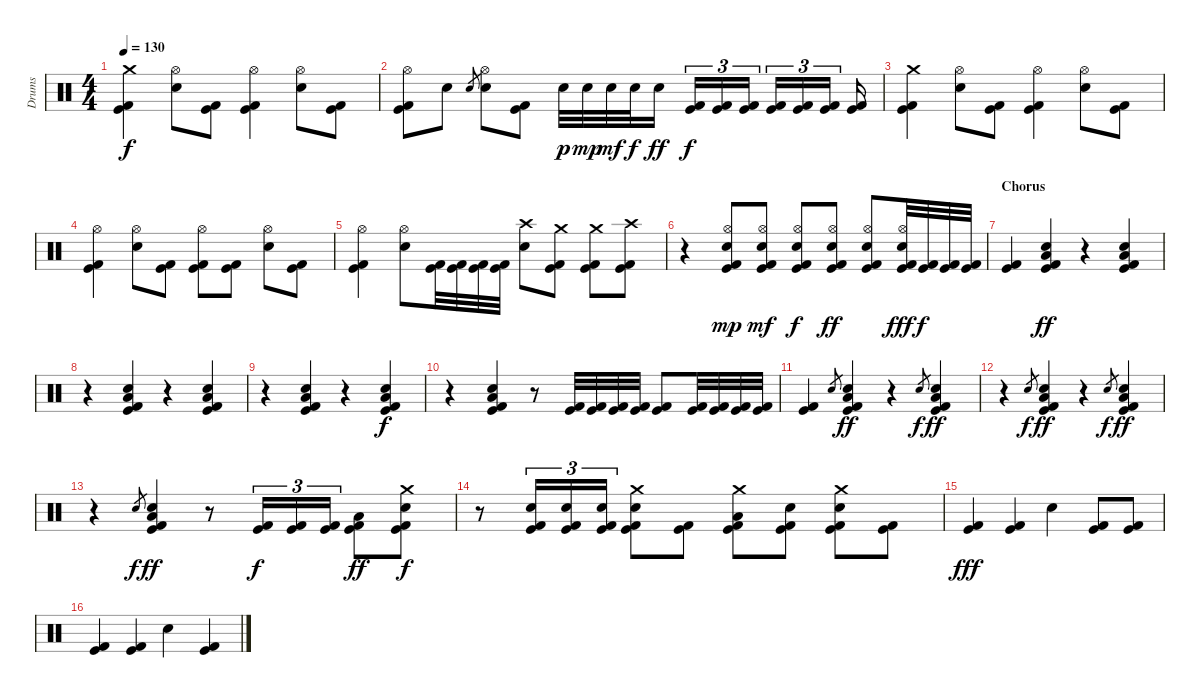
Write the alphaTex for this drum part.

\track ("Drums" "Drums") {instrument percussion}
\staff {score}
\articulation defaults
\ts (4 4)
\tempo 130
\clef neutral
\ks c
("Crash medium (hit)" "Kick (hit)" "Kick (hit) 2").4{dy f} ("Hi-Hat (open)" "Electric Snare (hit)").8 ("Kick (hit)" "Kick (hit) 2").8 ("Hi-Hat (open)" "Kick (hit)" "Kick (hit) 2").4 ("Hi-Hat (open)" "Electric Snare (hit)").8 ("Kick (hit)" "Kick (hit) 2").8 |
("Hi-Hat (open)" "Kick (hit)" "Kick (hit) 2").8 "Electric Snare (hit)".8 "Electric Snare (hit)".8{gr} ("Hi-Hat (open)" "Electric Snare (hit)").8 ("Kick (hit)" "Kick (hit) 2").8 "Electric Snare (hit)".32{dy p} "Electric Snare (hit)".32{dy mp} "Electric Snare (hit)".32{dy mf} "Electric Snare (hit)".32{dy f} "Electric Snare (hit)".16{dy ff} ("Kick (hit)" "Kick (hit) 2").16{tu (3 2) dy f} ("Kick (hit)" "Kick (hit) 2").16{tu (3 2)} ("Kick (hit)" "Kick (hit) 2").16{tu (3 2)} ("Kick (hit)" "Kick (hit) 2").16{tu (3 2)} ("Kick (hit)" "Kick (hit) 2").16{tu (3 2)} ("Kick (hit)" "Kick (hit) 2").16{tu (3 2)} ("Kick (hit)" "Kick (hit) 2").16 |
("Crash medium (hit)" "Kick (hit)" "Kick (hit) 2").4 ("Hi-Hat (open)" "Electric Snare (hit)").8 ("Kick (hit)" "Kick (hit) 2").8 ("Hi-Hat (open)" "Kick (hit)" "Kick (hit) 2").4 ("Hi-Hat (open)" "Electric Snare (hit)").8 ("Kick (hit)" "Kick (hit) 2").8 |
("Hi-Hat (open)" "Kick (hit)" "Kick (hit) 2").4 ("Hi-Hat (open)" "Electric Snare (hit)").8 ("Kick (hit)" "Kick (hit) 2").8 ("Hi-Hat (open)" "Kick (hit)" "Kick (hit) 2").8 ("Kick (hit)" "Kick (hit) 2").8 ("Hi-Hat (open)" "Electric Snare (hit)").8 ("Kick (hit)" "Kick (hit) 2").8 |
("Hi-Hat (open)" "Kick (hit)" "Kick (hit) 2").4 ("Hi-Hat (open)" "Electric Snare (hit)").8 ("Kick (hit)" "Kick (hit) 2").32 ("Kick (hit)" "Kick (hit) 2").32 ("Kick (hit)" "Kick (hit) 2").32 ("Kick (hit)" "Kick (hit) 2").32 ("Crash high (hit)" "Electric Snare (hit)").8 ("Crash medium (hit)" "Kick (hit)" "Kick (hit) 2").8 ("Crash medium (hit)" "Kick (hit)" "Kick (hit) 2").8 ("Crash high (hit)" "Kick (hit)" "Kick (hit) 2").8 |
r.4 ("Hi-Hat (open)" "Electric Snare (hit)" "Kick (hit)" "Kick (hit) 2").8{dy mp} ("Hi-Hat (open)" "Electric Snare (hit)" "Kick (hit)" "Kick (hit) 2").8{dy mf} ("Hi-Hat (open)" "Electric Snare (hit)" "Kick (hit)" "Kick (hit) 2").8{dy f} ("Hi-Hat (open)" "Electric Snare (hit)" "Kick (hit)" "Kick (hit) 2").8{dy ff} ("Hi-Hat (open)" "Electric Snare (hit)" "Kick (hit)" "Kick (hit) 2").8 ("Hi-Hat (open)" "Electric Snare (hit)" "Kick (hit)" "Kick (hit) 2").32{dy fff} ("Kick (hit)" "Kick (hit) 2").32{dy f} ("Kick (hit)" "Kick (hit) 2").32 ("Kick (hit)" "Kick (hit) 2").32 |
\section ("" "Chorus")
("Kick (hit)" "Kick (hit) 2").4 ("Electric Snare (hit)" "Low Floor Tom (hit)" "Kick (hit)" "Kick (hit) 2").4{dy ff} r.4 ("Electric Snare (hit)" "Low Floor Tom (hit)" "Kick (hit)" "Kick (hit) 2").4 |
r.4 ("Electric Snare (hit)" "Low Floor Tom (hit)" "Kick (hit)" "Kick (hit) 2").4 r.4 ("Electric Snare (hit)" "Low Floor Tom (hit)" "Kick (hit)" "Kick (hit) 2").4 |
r.4 ("Electric Snare (hit)" "Low Floor Tom (hit)" "Kick (hit)" "Kick (hit) 2").4 r.4 ("Electric Snare (hit)" "Low Floor Tom (hit)" "Kick (hit)" "Kick (hit) 2").4{dy f} |
r.4 ("Electric Snare (hit)" "Low Floor Tom (hit)" "Kick (hit)" "Kick (hit) 2").4 r.8 ("Kick (hit)" "Kick (hit) 2").32 ("Kick (hit)" "Kick (hit) 2").32 ("Kick (hit)" "Kick (hit) 2").32 ("Kick (hit)" "Kick (hit) 2").32 ("Kick (hit)" "Kick (hit) 2").8 ("Kick (hit)" "Kick (hit) 2").32 ("Kick (hit)" "Kick (hit) 2").32 ("Kick (hit)" "Kick (hit) 2").32 ("Kick (hit)" "Kick (hit) 2").32 |
("Kick (hit)" "Kick (hit) 2").4 "Electric Snare (hit)".8{gr} ("Electric Snare (hit)" "Low Floor Tom (hit)" "Kick (hit)" "Kick (hit) 2").4{dy ff} r.4 "Electric Snare (hit)".8{gr dy f} ("Electric Snare (hit)" "Low Floor Tom (hit)" "Kick (hit)" "Kick (hit) 2").4{dy ff} |
r.4 "Electric Snare (hit)".8{gr dy f} ("Electric Snare (hit)" "Low Floor Tom (hit)" "Kick (hit)" "Kick (hit) 2").4{dy ff} r.4 "Electric Snare (hit)".8{gr dy f} ("Electric Snare (hit)" "Low Floor Tom (hit)" "Kick (hit)" "Kick (hit) 2").4{dy ff} |
r.4 "Electric Snare (hit)".8{gr dy f} ("Electric Snare (hit)" "Low Floor Tom (hit)" "Kick (hit)" "Kick (hit) 2").4{dy ff} r.8 ("Kick (hit)" "Kick (hit) 2").16{tu (3 2) dy f} ("Kick (hit)" "Kick (hit) 2").16{tu (3 2)} ("Kick (hit)" "Kick (hit) 2").16{tu (3 2)} ("Low Floor Tom (hit)" "Kick (hit)" "Kick (hit) 2").8{dy ff} ("Crash medium (hit)" "Electric Snare (hit)" "Kick (hit)" "Kick (hit) 2").8{dy f} |
r.8 ("Electric Snare (hit)" "Kick (hit)" "Kick (hit) 2").16{tu (3 2)} ("Electric Snare (hit)" "Kick (hit)" "Kick (hit) 2").16{tu (3 2)} ("Electric Snare (hit)" "Kick (hit)" "Kick (hit) 2").16{tu (3 2)} ("Crash medium (hit)" "Electric Snare (hit)" "Kick (hit)" "Kick (hit) 2").8 ("Kick (hit)" "Kick (hit) 2").8 ("Crash medium (hit)" "Low Floor Tom (hit)" "Kick (hit)" "Kick (hit) 2").8 ("Electric Snare (hit)" "Kick (hit)" "Kick (hit) 2").8 ("Crash medium (hit)" "Electric Snare (hit)" "Kick (hit)" "Kick (hit) 2").8 ("Kick (hit)" "Kick (hit) 2").8 |
("Kick (hit)" "Kick (hit) 2").4{dy fff} ("Kick (hit)" "Kick (hit) 2").4 "Electric Snare (hit)".4 ("Kick (hit)" "Kick (hit) 2").8 ("Kick (hit)" "Kick (hit) 2").8 |
("Kick (hit)" "Kick (hit) 2").4 ("Kick (hit)" "Kick (hit) 2").4 "Electric Snare (hit)".4 ("Kick (hit)" "Kick (hit) 2").4
